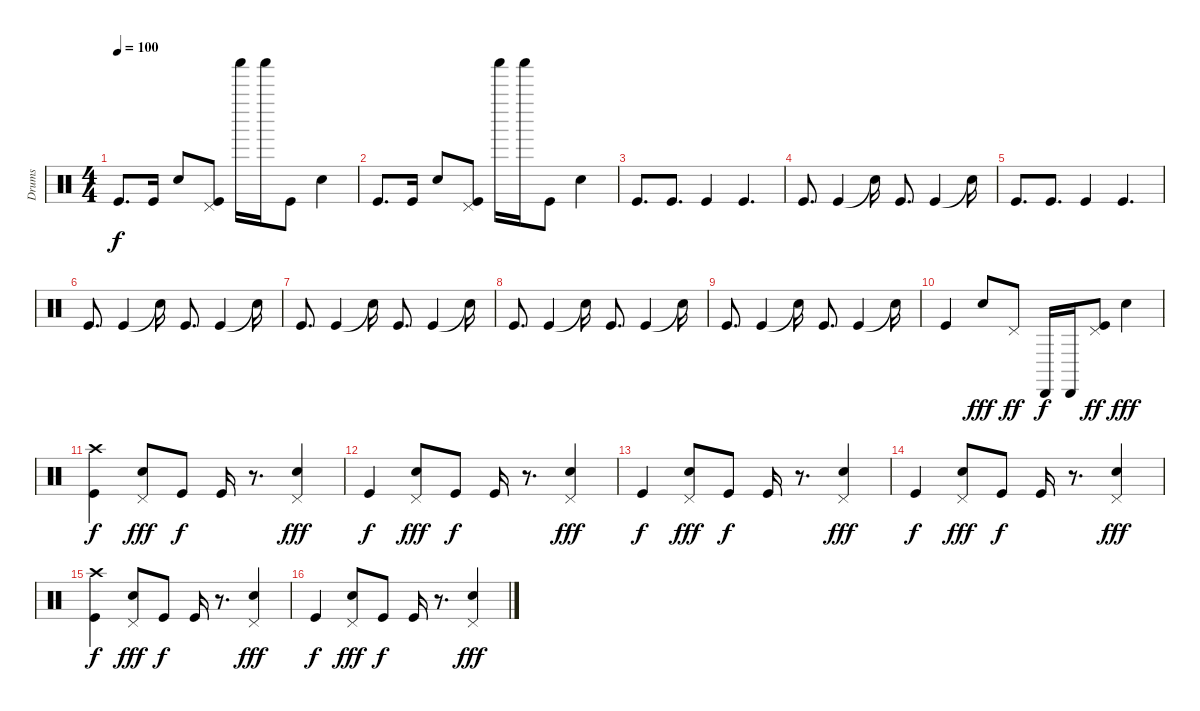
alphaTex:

\track ("Drums" "Drums") {instrument percussion}
\staff {score}
\articulation defaults
\ts (4 4)
\tempo 100
\clef neutral
\ks c "Kick (hit)".8{d dy f} "Kick (hit)".16 "Electric Snare (hit)".8
("Pedal Hi-Hat (hit)" "Kick (hit)").8 "Shaker (hit)".16 "Shaker (hit)".16 "Kick (hit)".8 "Electric Snare (hit)".4 |
"Kick (hit)".8{d} "Kick (hit)".16 "Electric Snare (hit)".8 ("Pedal Hi-Hat (hit)" "Kick (hit)").8 "Shaker (hit)".16 "Shaker (hit)".16 "Kick (hit)".8 "Electric Snare (hit)".4 |
"Kick (hit)".8{d} "Kick (hit)".8{d} "Kick (hit)".4 "Kick (hit)".4{d} |
"Kick (hit)".8{d} "Kick (hit)".4 "Snare (hit)"{t}.16 "Kick (hit)".8{d} "Kick (hit)".4 "Snare (hit)"{t}.16 |
"Kick (hit)".8{d} "Kick (hit)".8{d} "Kick (hit)".4 "Kick (hit)".4{d} |
"Kick (hit)".8{d} "Kick (hit)".4 "Snare (hit)"{t}.16 "Kick (hit)".8{d} "Kick (hit)".4 "Snare (hit)"{t}.16 |
"Kick (hit)".8{d} "Kick (hit)".4 "Snare (hit)"{t}.16 "Kick (hit)".8{d} "Kick (hit)".4 "Snare (hit)"{t}.16 |
"Kick (hit)".8{d} "Kick (hit)".4 "Snare (hit)"{t}.16 "Kick (hit)".8{d} "Kick (hit)".4 "Snare (hit)"{t}.16 |
"Kick (hit)".8{d} "Kick (hit)".4 "Snare (hit)"{t}.16 "Kick (hit)".8{d} "Kick (hit)".4 "Snare (hit)"{t}.16 |
"Kick (hit)".4 "Electric Snare (hit)".8{dy fff} "Pedal Hi-Hat (hit)".8{dy ff} "Cabasa (hit)".16{dy f} "Cabasa (hit)".16 ("Pedal Hi-Hat (hit)" "Kick (hit)").8{dy ff} "Electric Snare (hit)".4{dy fff} |
("Crash high (hit)" "Kick (hit)").4{dy f} ("Pedal Hi-Hat (hit)" "Electric Snare (hit)").8{dy fff} "Kick (hit)".8{dy f} "Kick (hit)".16 r.8{d} ("Pedal Hi-Hat (hit)" "Electric Snare (hit)").4{dy fff} |
"Kick (hit)".4{dy f} ("Pedal Hi-Hat (hit)" "Electric Snare (hit)").8{dy fff} "Kick (hit)".8{dy f} "Kick (hit)".16 r.8{d} ("Pedal Hi-Hat (hit)" "Electric Snare (hit)").4{dy fff} |
"Kick (hit)".4{dy f} ("Pedal Hi-Hat (hit)" "Electric Snare (hit)").8{dy fff} "Kick (hit)".8{dy f} "Kick (hit)".16 r.8{d} ("Pedal Hi-Hat (hit)" "Electric Snare (hit)").4{dy fff} |
"Kick (hit)".4{dy f} ("Pedal Hi-Hat (hit)" "Electric Snare (hit)").8{dy fff} "Kick (hit)".8{dy f} "Kick (hit)".16 r.8{d} ("Pedal Hi-Hat (hit)" "Electric Snare (hit)").4{dy fff} |
("Crash high (hit)" "Kick (hit)").4{dy f} ("Pedal Hi-Hat (hit)" "Electric Snare (hit)").8{dy fff} "Kick (hit)".8{dy f} "Kick (hit)".16 r.8{d} ("Pedal Hi-Hat (hit)" "Electric Snare (hit)").4{dy fff} |
"Kick (hit)".4{dy f} ("Pedal Hi-Hat (hit)" "Electric Snare (hit)").8{dy fff} "Kick (hit)".8{dy f} "Kick (hit)".16 r.8{d} ("Pedal Hi-Hat (hit)" "Electric Snare (hit)").4{dy fff}
